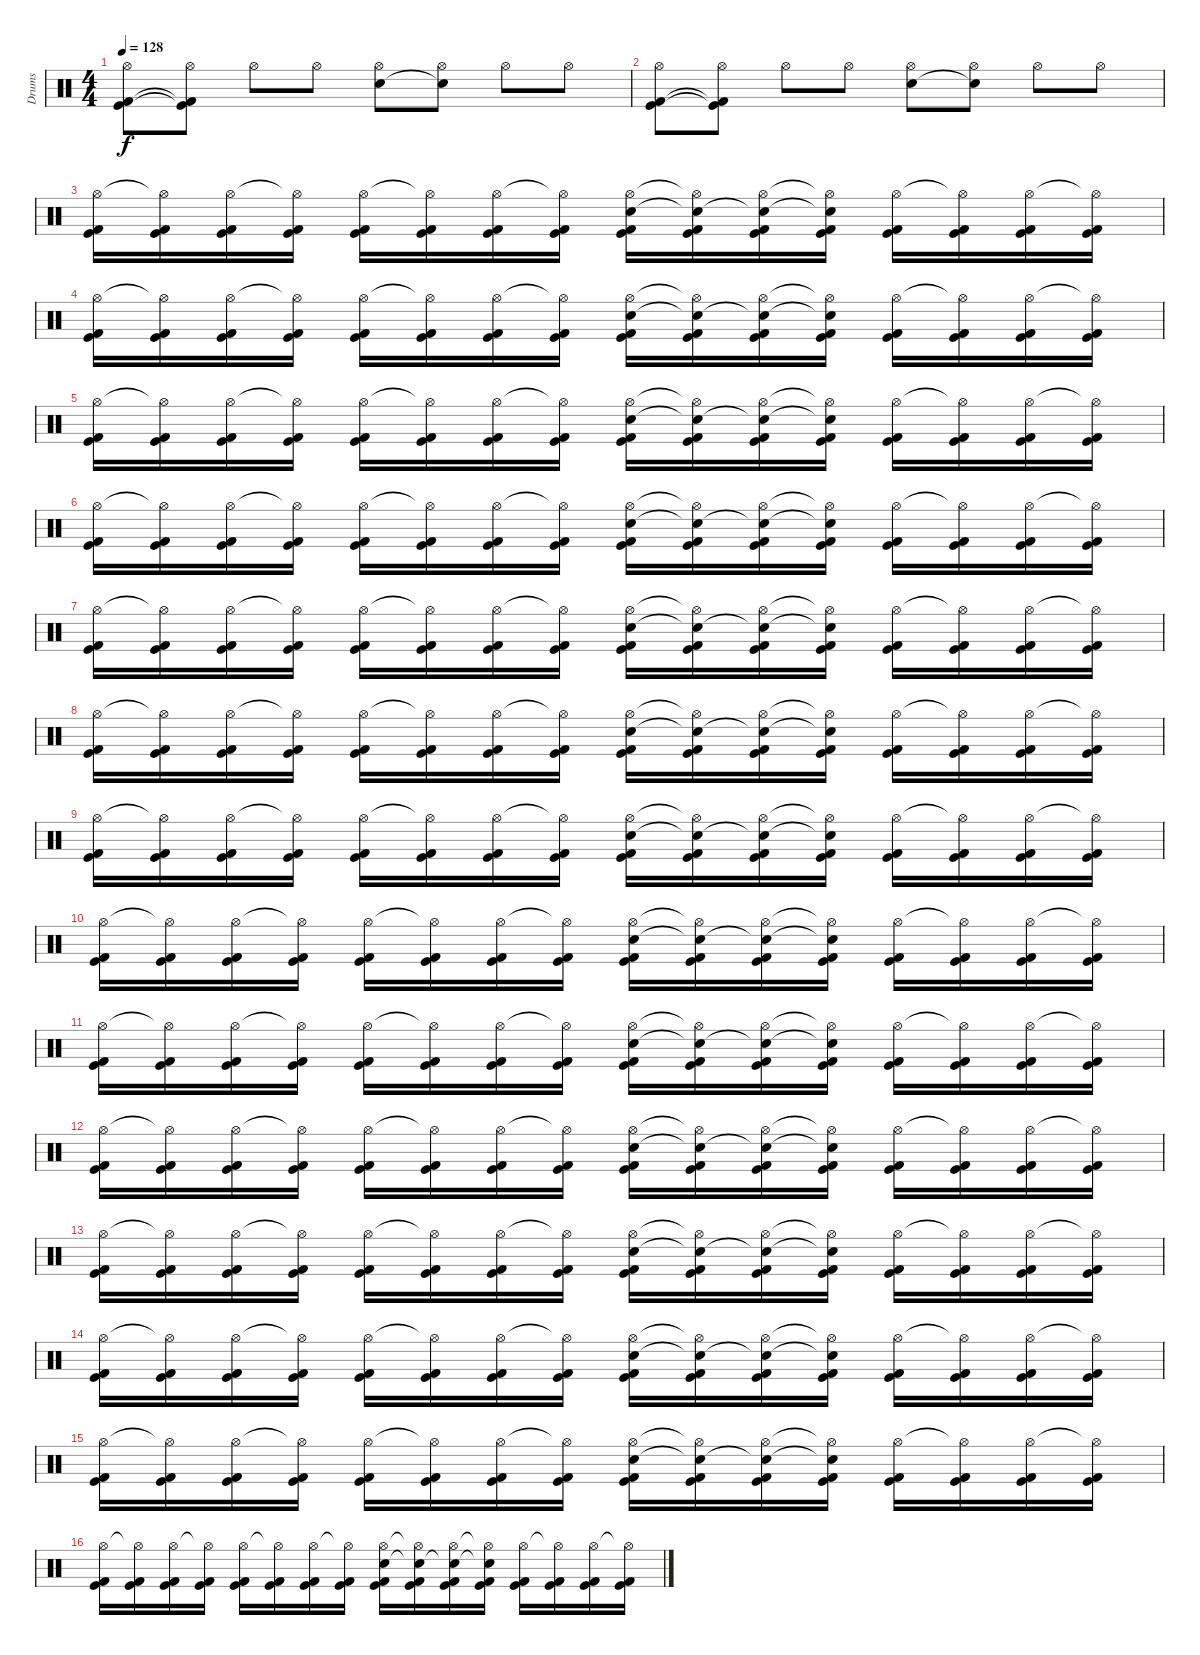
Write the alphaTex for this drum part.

\track ("Drums" "Drums") {instrument percussion}
\staff {score}
\articulation defaults
\ts (4 4)
\tempo 128
\clef neutral
\ks c
("Hi-Hat (open)" "Kick (hit) 2" "Kick (hit)").8{dy f} ("Hi-Hat (open)" "Kick (hit) 2"{t} "Kick (hit)"{t}).8 "Hi-Hat (open)".8 "Hi-Hat (open)".8 ("Hi-Hat (open)" "Snare (hit) 2").8 ("Hi-Hat (open)" "Snare (hit) 2"{t}).8 "Hi-Hat (open)".8 "Hi-Hat (open)".8 |
("Hi-Hat (open)" "Kick (hit) 2" "Kick (hit)").8 ("Hi-Hat (open)" "Kick (hit) 2"{t} "Kick (hit)"{t}).8 "Hi-Hat (open)".8 "Hi-Hat (open)".8 ("Hi-Hat (open)" "Snare (hit) 2").8 ("Hi-Hat (open)" "Snare (hit) 2"{t}).8 "Hi-Hat (open)".8 "Hi-Hat (open)".8 |
("Hi-Hat (open)" "Kick (hit) 2" "Kick (hit)").16 ("Hi-Hat (open)"{t} "Kick (hit) 2" "Kick (hit)").16 ("Hi-Hat (open)" "Kick (hit) 2" "Kick (hit)").16 ("Hi-Hat (open)"{t} "Kick (hit) 2" "Kick (hit)").16 ("Hi-Hat (open)" "Kick (hit) 2" "Kick (hit)").16 ("Hi-Hat (open)"{t} "Kick (hit) 2" "Kick (hit)").16 ("Hi-Hat (open)" "Kick (hit) 2" "Kick (hit)").16 ("Hi-Hat (open)"{t} "Kick (hit) 2" "Kick (hit)").16 ("Hi-Hat (open)" "Snare (hit) 2" "Kick (hit) 2" "Kick (hit)").16 ("Hi-Hat (open)"{t} "Snare (hit) 2"{t} "Kick (hit) 2" "Kick (hit)").16 ("Hi-Hat (open)" "Snare (hit) 2"{t} "Kick (hit) 2" "Kick (hit)").16 ("Hi-Hat (open)"{t} "Snare (hit) 2"{t} "Kick (hit) 2" "Kick (hit)").16 ("Hi-Hat (open)" "Kick (hit) 2" "Kick (hit)").16 ("Hi-Hat (open)"{t} "Kick (hit) 2" "Kick (hit)").16 ("Hi-Hat (open)" "Kick (hit) 2" "Kick (hit)").16 ("Hi-Hat (open)"{t} "Kick (hit) 2" "Kick (hit)").16 |
("Hi-Hat (open)" "Kick (hit) 2" "Kick (hit)").16 ("Hi-Hat (open)"{t} "Kick (hit) 2" "Kick (hit)").16 ("Hi-Hat (open)" "Kick (hit) 2" "Kick (hit)").16 ("Hi-Hat (open)"{t} "Kick (hit) 2" "Kick (hit)").16 ("Hi-Hat (open)" "Kick (hit) 2" "Kick (hit)").16 ("Hi-Hat (open)"{t} "Kick (hit) 2" "Kick (hit)").16 ("Hi-Hat (open)" "Kick (hit) 2" "Kick (hit)").16 ("Hi-Hat (open)"{t} "Kick (hit) 2" "Kick (hit)").16 ("Hi-Hat (open)" "Snare (hit) 2" "Kick (hit) 2" "Kick (hit)").16 ("Hi-Hat (open)"{t} "Snare (hit) 2"{t} "Kick (hit) 2" "Kick (hit)").16 ("Hi-Hat (open)" "Snare (hit) 2"{t} "Kick (hit) 2" "Kick (hit)").16 ("Hi-Hat (open)"{t} "Snare (hit) 2"{t} "Kick (hit) 2" "Kick (hit)").16 ("Hi-Hat (open)" "Kick (hit) 2" "Kick (hit)").16 ("Hi-Hat (open)"{t} "Kick (hit) 2" "Kick (hit)").16 ("Hi-Hat (open)" "Kick (hit) 2" "Kick (hit)").16 ("Hi-Hat (open)"{t} "Kick (hit) 2" "Kick (hit)").16 |
("Hi-Hat (open)" "Kick (hit) 2" "Kick (hit)").16 ("Hi-Hat (open)"{t} "Kick (hit) 2" "Kick (hit)").16 ("Hi-Hat (open)" "Kick (hit) 2" "Kick (hit)").16 ("Hi-Hat (open)"{t} "Kick (hit) 2" "Kick (hit)").16 ("Hi-Hat (open)" "Kick (hit) 2" "Kick (hit)").16 ("Hi-Hat (open)"{t} "Kick (hit) 2" "Kick (hit)").16 ("Hi-Hat (open)" "Kick (hit) 2" "Kick (hit)").16 ("Hi-Hat (open)"{t} "Kick (hit) 2" "Kick (hit)").16 ("Hi-Hat (open)" "Snare (hit) 2" "Kick (hit) 2" "Kick (hit)").16 ("Hi-Hat (open)"{t} "Snare (hit) 2"{t} "Kick (hit) 2" "Kick (hit)").16 ("Hi-Hat (open)" "Snare (hit) 2"{t} "Kick (hit) 2" "Kick (hit)").16 ("Hi-Hat (open)"{t} "Snare (hit) 2"{t} "Kick (hit) 2" "Kick (hit)").16 ("Hi-Hat (open)" "Kick (hit) 2" "Kick (hit)").16 ("Hi-Hat (open)"{t} "Kick (hit) 2" "Kick (hit)").16 ("Hi-Hat (open)" "Kick (hit) 2" "Kick (hit)").16 ("Hi-Hat (open)"{t} "Kick (hit) 2" "Kick (hit)").16 |
("Hi-Hat (open)" "Kick (hit) 2" "Kick (hit)").16 ("Hi-Hat (open)"{t} "Kick (hit) 2" "Kick (hit)").16 ("Hi-Hat (open)" "Kick (hit) 2" "Kick (hit)").16 ("Hi-Hat (open)"{t} "Kick (hit) 2" "Kick (hit)").16 ("Hi-Hat (open)" "Kick (hit) 2" "Kick (hit)").16 ("Hi-Hat (open)"{t} "Kick (hit) 2" "Kick (hit)").16 ("Hi-Hat (open)" "Kick (hit) 2" "Kick (hit)").16 ("Hi-Hat (open)"{t} "Kick (hit) 2" "Kick (hit)").16 ("Hi-Hat (open)" "Snare (hit) 2" "Kick (hit) 2" "Kick (hit)").16 ("Hi-Hat (open)"{t} "Snare (hit) 2"{t} "Kick (hit) 2" "Kick (hit)").16 ("Hi-Hat (open)" "Snare (hit) 2"{t} "Kick (hit) 2" "Kick (hit)").16 ("Hi-Hat (open)"{t} "Snare (hit) 2"{t} "Kick (hit) 2" "Kick (hit)").16 ("Hi-Hat (open)" "Kick (hit) 2" "Kick (hit)").16 ("Hi-Hat (open)"{t} "Kick (hit) 2" "Kick (hit)").16 ("Hi-Hat (open)" "Kick (hit) 2" "Kick (hit)").16 ("Hi-Hat (open)"{t} "Kick (hit) 2" "Kick (hit)").16 |
("Hi-Hat (open)" "Kick (hit) 2" "Kick (hit)").16 ("Hi-Hat (open)"{t} "Kick (hit) 2" "Kick (hit)").16 ("Hi-Hat (open)" "Kick (hit) 2" "Kick (hit)").16 ("Hi-Hat (open)"{t} "Kick (hit) 2" "Kick (hit)").16 ("Hi-Hat (open)" "Kick (hit) 2" "Kick (hit)").16 ("Hi-Hat (open)"{t} "Kick (hit) 2" "Kick (hit)").16 ("Hi-Hat (open)" "Kick (hit) 2" "Kick (hit)").16 ("Hi-Hat (open)"{t} "Kick (hit) 2" "Kick (hit)").16 ("Hi-Hat (open)" "Snare (hit) 2" "Kick (hit) 2" "Kick (hit)").16 ("Hi-Hat (open)"{t} "Snare (hit) 2"{t} "Kick (hit) 2" "Kick (hit)").16 ("Hi-Hat (open)" "Snare (hit) 2"{t} "Kick (hit) 2" "Kick (hit)").16 ("Hi-Hat (open)"{t} "Snare (hit) 2"{t} "Kick (hit) 2" "Kick (hit)").16 ("Hi-Hat (open)" "Kick (hit) 2" "Kick (hit)").16 ("Hi-Hat (open)"{t} "Kick (hit) 2" "Kick (hit)").16 ("Hi-Hat (open)" "Kick (hit) 2" "Kick (hit)").16 ("Hi-Hat (open)"{t} "Kick (hit) 2" "Kick (hit)").16 |
("Hi-Hat (open)" "Kick (hit) 2" "Kick (hit)").16 ("Hi-Hat (open)"{t} "Kick (hit) 2" "Kick (hit)").16 ("Hi-Hat (open)" "Kick (hit) 2" "Kick (hit)").16 ("Hi-Hat (open)"{t} "Kick (hit) 2" "Kick (hit)").16 ("Hi-Hat (open)" "Kick (hit) 2" "Kick (hit)").16 ("Hi-Hat (open)"{t} "Kick (hit) 2" "Kick (hit)").16 ("Hi-Hat (open)" "Kick (hit) 2" "Kick (hit)").16 ("Hi-Hat (open)"{t} "Kick (hit) 2" "Kick (hit)").16 ("Hi-Hat (open)" "Snare (hit) 2" "Kick (hit) 2" "Kick (hit)").16 ("Hi-Hat (open)"{t} "Snare (hit) 2"{t} "Kick (hit) 2" "Kick (hit)").16 ("Hi-Hat (open)" "Snare (hit) 2"{t} "Kick (hit) 2" "Kick (hit)").16 ("Hi-Hat (open)"{t} "Snare (hit) 2"{t} "Kick (hit) 2" "Kick (hit)").16 ("Hi-Hat (open)" "Kick (hit) 2" "Kick (hit)").16 ("Hi-Hat (open)"{t} "Kick (hit) 2" "Kick (hit)").16 ("Hi-Hat (open)" "Kick (hit) 2" "Kick (hit)").16 ("Hi-Hat (open)"{t} "Kick (hit) 2" "Kick (hit)").16 |
("Hi-Hat (open)" "Kick (hit) 2" "Kick (hit)").16 ("Hi-Hat (open)"{t} "Kick (hit) 2" "Kick (hit)").16 ("Hi-Hat (open)" "Kick (hit) 2" "Kick (hit)").16 ("Hi-Hat (open)"{t} "Kick (hit) 2" "Kick (hit)").16 ("Hi-Hat (open)" "Kick (hit) 2" "Kick (hit)").16 ("Hi-Hat (open)"{t} "Kick (hit) 2" "Kick (hit)").16 ("Hi-Hat (open)" "Kick (hit) 2" "Kick (hit)").16 ("Hi-Hat (open)"{t} "Kick (hit) 2" "Kick (hit)").16 ("Hi-Hat (open)" "Snare (hit) 2" "Kick (hit) 2" "Kick (hit)").16 ("Hi-Hat (open)"{t} "Snare (hit) 2"{t} "Kick (hit) 2" "Kick (hit)").16 ("Hi-Hat (open)" "Snare (hit) 2"{t} "Kick (hit) 2" "Kick (hit)").16 ("Hi-Hat (open)"{t} "Snare (hit) 2"{t} "Kick (hit) 2" "Kick (hit)").16 ("Hi-Hat (open)" "Kick (hit) 2" "Kick (hit)").16 ("Hi-Hat (open)"{t} "Kick (hit) 2" "Kick (hit)").16 ("Hi-Hat (open)" "Kick (hit) 2" "Kick (hit)").16 ("Hi-Hat (open)"{t} "Kick (hit) 2" "Kick (hit)").16 |
("Hi-Hat (open)" "Kick (hit) 2" "Kick (hit)").16 ("Hi-Hat (open)"{t} "Kick (hit) 2" "Kick (hit)").16 ("Hi-Hat (open)" "Kick (hit) 2" "Kick (hit)").16 ("Hi-Hat (open)"{t} "Kick (hit) 2" "Kick (hit)").16 ("Hi-Hat (open)" "Kick (hit) 2" "Kick (hit)").16 ("Hi-Hat (open)"{t} "Kick (hit) 2" "Kick (hit)").16 ("Hi-Hat (open)" "Kick (hit) 2" "Kick (hit)").16 ("Hi-Hat (open)"{t} "Kick (hit) 2" "Kick (hit)").16 ("Hi-Hat (open)" "Snare (hit) 2" "Kick (hit) 2" "Kick (hit)").16 ("Hi-Hat (open)"{t} "Snare (hit) 2"{t} "Kick (hit) 2" "Kick (hit)").16 ("Hi-Hat (open)" "Snare (hit) 2"{t} "Kick (hit) 2" "Kick (hit)").16 ("Hi-Hat (open)"{t} "Snare (hit) 2"{t} "Kick (hit) 2" "Kick (hit)").16 ("Hi-Hat (open)" "Kick (hit) 2" "Kick (hit)").16 ("Hi-Hat (open)"{t} "Kick (hit) 2" "Kick (hit)").16 ("Hi-Hat (open)" "Kick (hit) 2" "Kick (hit)").16 ("Hi-Hat (open)"{t} "Kick (hit) 2" "Kick (hit)").16 |
("Hi-Hat (open)" "Kick (hit) 2" "Kick (hit)").16 ("Hi-Hat (open)"{t} "Kick (hit) 2" "Kick (hit)").16 ("Hi-Hat (open)" "Kick (hit) 2" "Kick (hit)").16 ("Hi-Hat (open)"{t} "Kick (hit) 2" "Kick (hit)").16 ("Hi-Hat (open)" "Kick (hit) 2" "Kick (hit)").16 ("Hi-Hat (open)"{t} "Kick (hit) 2" "Kick (hit)").16 ("Hi-Hat (open)" "Kick (hit) 2" "Kick (hit)").16 ("Hi-Hat (open)"{t} "Kick (hit) 2" "Kick (hit)").16 ("Hi-Hat (open)" "Snare (hit) 2" "Kick (hit) 2" "Kick (hit)").16 ("Hi-Hat (open)"{t} "Snare (hit) 2"{t} "Kick (hit) 2" "Kick (hit)").16 ("Hi-Hat (open)" "Snare (hit) 2"{t} "Kick (hit) 2" "Kick (hit)").16 ("Hi-Hat (open)"{t} "Snare (hit) 2"{t} "Kick (hit) 2" "Kick (hit)").16 ("Hi-Hat (open)" "Kick (hit) 2" "Kick (hit)").16 ("Hi-Hat (open)"{t} "Kick (hit) 2" "Kick (hit)").16 ("Hi-Hat (open)" "Kick (hit) 2" "Kick (hit)").16 ("Hi-Hat (open)"{t} "Kick (hit) 2" "Kick (hit)").16 |
("Hi-Hat (open)" "Kick (hit) 2" "Kick (hit)").16 ("Hi-Hat (open)"{t} "Kick (hit) 2" "Kick (hit)").16 ("Hi-Hat (open)" "Kick (hit) 2" "Kick (hit)").16 ("Hi-Hat (open)"{t} "Kick (hit) 2" "Kick (hit)").16 ("Hi-Hat (open)" "Kick (hit) 2" "Kick (hit)").16 ("Hi-Hat (open)"{t} "Kick (hit) 2" "Kick (hit)").16 ("Hi-Hat (open)" "Kick (hit) 2" "Kick (hit)").16 ("Hi-Hat (open)"{t} "Kick (hit) 2" "Kick (hit)").16 ("Hi-Hat (open)" "Snare (hit) 2" "Kick (hit) 2" "Kick (hit)").16 ("Hi-Hat (open)"{t} "Snare (hit) 2"{t} "Kick (hit) 2" "Kick (hit)").16 ("Hi-Hat (open)" "Snare (hit) 2"{t} "Kick (hit) 2" "Kick (hit)").16 ("Hi-Hat (open)"{t} "Snare (hit) 2"{t} "Kick (hit) 2" "Kick (hit)").16 ("Hi-Hat (open)" "Kick (hit) 2" "Kick (hit)").16 ("Hi-Hat (open)"{t} "Kick (hit) 2" "Kick (hit)").16 ("Hi-Hat (open)" "Kick (hit) 2" "Kick (hit)").16 ("Hi-Hat (open)"{t} "Kick (hit) 2" "Kick (hit)").16 |
("Hi-Hat (open)" "Kick (hit) 2" "Kick (hit)").16 ("Hi-Hat (open)"{t} "Kick (hit) 2" "Kick (hit)").16 ("Hi-Hat (open)" "Kick (hit) 2" "Kick (hit)").16 ("Hi-Hat (open)"{t} "Kick (hit) 2" "Kick (hit)").16 ("Hi-Hat (open)" "Kick (hit) 2" "Kick (hit)").16 ("Hi-Hat (open)"{t} "Kick (hit) 2" "Kick (hit)").16 ("Hi-Hat (open)" "Kick (hit) 2" "Kick (hit)").16 ("Hi-Hat (open)"{t} "Kick (hit) 2" "Kick (hit)").16 ("Hi-Hat (open)" "Snare (hit) 2" "Kick (hit) 2" "Kick (hit)").16 ("Hi-Hat (open)"{t} "Snare (hit) 2"{t} "Kick (hit) 2" "Kick (hit)").16 ("Hi-Hat (open)" "Snare (hit) 2"{t} "Kick (hit) 2" "Kick (hit)").16 ("Hi-Hat (open)"{t} "Snare (hit) 2"{t} "Kick (hit) 2" "Kick (hit)").16 ("Hi-Hat (open)" "Kick (hit) 2" "Kick (hit)").16 ("Hi-Hat (open)"{t} "Kick (hit) 2" "Kick (hit)").16 ("Hi-Hat (open)" "Kick (hit) 2" "Kick (hit)").16 ("Hi-Hat (open)"{t} "Kick (hit) 2" "Kick (hit)").16 |
("Hi-Hat (open)" "Kick (hit) 2" "Kick (hit)").16 ("Hi-Hat (open)"{t} "Kick (hit) 2" "Kick (hit)").16 ("Hi-Hat (open)" "Kick (hit) 2" "Kick (hit)").16 ("Hi-Hat (open)"{t} "Kick (hit) 2" "Kick (hit)").16 ("Hi-Hat (open)" "Kick (hit) 2" "Kick (hit)").16 ("Hi-Hat (open)"{t} "Kick (hit) 2" "Kick (hit)").16 ("Hi-Hat (open)" "Kick (hit) 2" "Kick (hit)").16 ("Hi-Hat (open)"{t} "Kick (hit) 2" "Kick (hit)").16 ("Hi-Hat (open)" "Snare (hit) 2" "Kick (hit) 2" "Kick (hit)").16 ("Hi-Hat (open)"{t} "Snare (hit) 2"{t} "Kick (hit) 2" "Kick (hit)").16 ("Hi-Hat (open)" "Snare (hit) 2"{t} "Kick (hit) 2" "Kick (hit)").16 ("Hi-Hat (open)"{t} "Snare (hit) 2"{t} "Kick (hit) 2" "Kick (hit)").16 ("Hi-Hat (open)" "Kick (hit) 2" "Kick (hit)").16 ("Hi-Hat (open)"{t} "Kick (hit) 2" "Kick (hit)").16 ("Hi-Hat (open)" "Kick (hit) 2" "Kick (hit)").16 ("Hi-Hat (open)"{t} "Kick (hit) 2" "Kick (hit)").16 |
("Hi-Hat (open)" "Kick (hit) 2" "Kick (hit)").16 ("Hi-Hat (open)"{t} "Kick (hit) 2" "Kick (hit)").16 ("Hi-Hat (open)" "Kick (hit) 2" "Kick (hit)").16 ("Hi-Hat (open)"{t} "Kick (hit) 2" "Kick (hit)").16 ("Hi-Hat (open)" "Kick (hit) 2" "Kick (hit)").16 ("Hi-Hat (open)"{t} "Kick (hit) 2" "Kick (hit)").16 ("Hi-Hat (open)" "Kick (hit) 2" "Kick (hit)").16 ("Hi-Hat (open)"{t} "Kick (hit) 2" "Kick (hit)").16 ("Hi-Hat (open)" "Snare (hit) 2" "Kick (hit) 2" "Kick (hit)").16 ("Hi-Hat (open)"{t} "Snare (hit) 2"{t} "Kick (hit) 2" "Kick (hit)").16 ("Hi-Hat (open)" "Snare (hit) 2"{t} "Kick (hit) 2" "Kick (hit)").16 ("Hi-Hat (open)"{t} "Snare (hit) 2"{t} "Kick (hit) 2" "Kick (hit)").16 ("Hi-Hat (open)" "Kick (hit) 2" "Kick (hit)").16 ("Hi-Hat (open)"{t} "Kick (hit) 2" "Kick (hit)").16 ("Hi-Hat (open)" "Kick (hit) 2" "Kick (hit)").16 ("Hi-Hat (open)"{t} "Kick (hit) 2" "Kick (hit)").16 |
("Hi-Hat (open)" "Kick (hit) 2" "Kick (hit)").16 ("Hi-Hat (open)"{t} "Kick (hit) 2" "Kick (hit)").16 ("Hi-Hat (open)" "Kick (hit) 2" "Kick (hit)").16 ("Hi-Hat (open)"{t} "Kick (hit) 2" "Kick (hit)").16 ("Hi-Hat (open)" "Kick (hit) 2" "Kick (hit)").16 ("Hi-Hat (open)"{t} "Kick (hit) 2" "Kick (hit)").16 ("Hi-Hat (open)" "Kick (hit) 2" "Kick (hit)").16 ("Hi-Hat (open)"{t} "Kick (hit) 2" "Kick (hit)").16 ("Hi-Hat (open)" "Snare (hit) 2" "Kick (hit) 2" "Kick (hit)").16 ("Hi-Hat (open)"{t} "Snare (hit) 2"{t} "Kick (hit) 2" "Kick (hit)").16 ("Hi-Hat (open)" "Snare (hit) 2"{t} "Kick (hit) 2" "Kick (hit)").16 ("Hi-Hat (open)"{t} "Snare (hit) 2"{t} "Kick (hit) 2" "Kick (hit)").16 ("Hi-Hat (open)" "Kick (hit) 2" "Kick (hit)").16 ("Hi-Hat (open)"{t} "Kick (hit) 2" "Kick (hit)").16 ("Hi-Hat (open)" "Kick (hit) 2" "Kick (hit)").16 ("Hi-Hat (open)"{t} "Kick (hit) 2" "Kick (hit)").16
